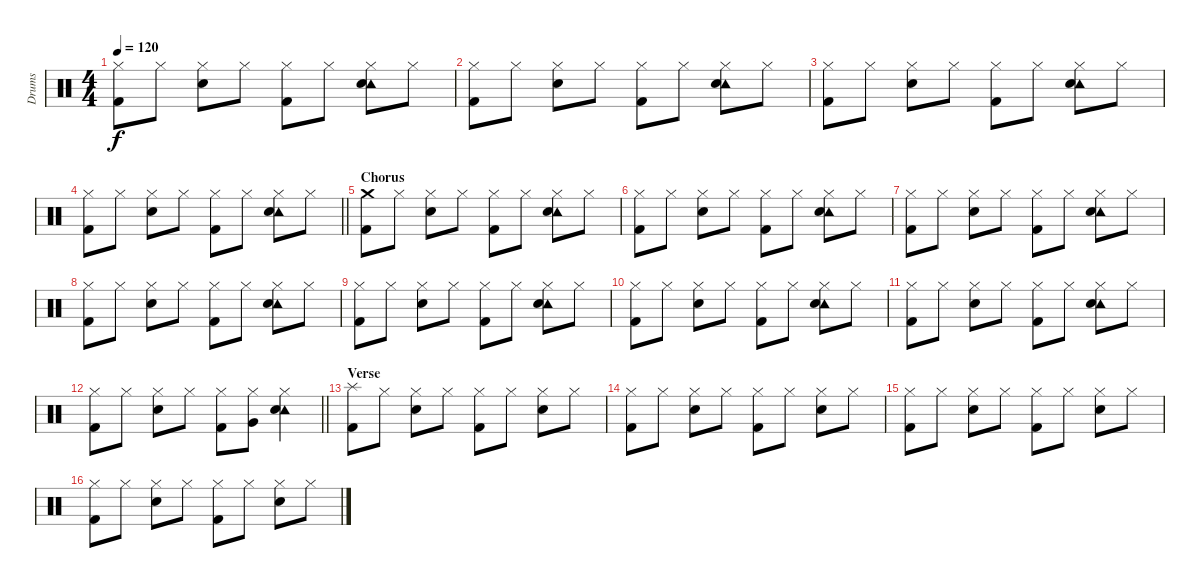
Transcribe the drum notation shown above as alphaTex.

\track ("Drums" "Drums") {instrument percussion}
\staff {score}
\articulation defaults
\ts (4 4)
\tempo 120
\clef neutral
\ks c
("Hi-Hat (closed)" "Kick (hit) 2").8{dy f} "Hi-Hat (closed)".8 ("Hi-Hat (closed)" "Electric Snare (hit)").8 "Hi-Hat (closed)".8 ("Hi-Hat (closed)" "Kick (hit) 2").8 "Hi-Hat (closed)".8 ("Hi-Hat (closed)" "Tambourine (hit)" "Electric Snare (hit)").8 "Hi-Hat (closed)".8 |
("Hi-Hat (closed)" "Kick (hit) 2").8 "Hi-Hat (closed)".8 ("Hi-Hat (closed)" "Electric Snare (hit)").8 "Hi-Hat (closed)".8 ("Hi-Hat (closed)" "Kick (hit) 2").8 "Hi-Hat (closed)".8 ("Hi-Hat (closed)" "Tambourine (hit)" "Electric Snare (hit)").8 "Hi-Hat (closed)".8 |
("Hi-Hat (closed)" "Kick (hit) 2").8 "Hi-Hat (closed)".8 ("Hi-Hat (closed)" "Electric Snare (hit)").8 "Hi-Hat (closed)".8 ("Hi-Hat (closed)" "Kick (hit) 2").8 "Hi-Hat (closed)".8 ("Hi-Hat (closed)" "Tambourine (hit)" "Electric Snare (hit)").8 "Hi-Hat (closed)".8 |
\barLineRight lightlight
("Hi-Hat (closed)" "Kick (hit) 2").8 "Hi-Hat (closed)".8 ("Hi-Hat (closed)" "Electric Snare (hit)").8 "Hi-Hat (closed)".8 ("Hi-Hat (closed)" "Kick (hit) 2").8 "Hi-Hat (closed)".8 ("Hi-Hat (closed)" "Tambourine (hit)" "Electric Snare (hit)").8 "Hi-Hat (closed)".8 |
\section ("" "Chorus")
("Crash medium (hit)" "Kick (hit) 2").8 "Hi-Hat (closed)".8 ("Hi-Hat (closed)" "Electric Snare (hit)").8 "Hi-Hat (closed)".8 ("Hi-Hat (closed)" "Kick (hit) 2").8 "Hi-Hat (closed)".8 ("Hi-Hat (closed)" "Tambourine (hit)" "Electric Snare (hit)").8 "Hi-Hat (closed)".8 |
("Hi-Hat (closed)" "Kick (hit) 2").8 "Hi-Hat (closed)".8 ("Hi-Hat (closed)" "Electric Snare (hit)").8 "Hi-Hat (closed)".8 ("Hi-Hat (closed)" "Kick (hit) 2").8 "Hi-Hat (closed)".8 ("Hi-Hat (closed)" "Tambourine (hit)" "Electric Snare (hit)").8 "Hi-Hat (closed)".8 |
("Hi-Hat (closed)" "Kick (hit) 2").8 "Hi-Hat (closed)".8 ("Hi-Hat (closed)" "Electric Snare (hit)").8 "Hi-Hat (closed)".8 ("Hi-Hat (closed)" "Kick (hit) 2").8 "Hi-Hat (closed)".8 ("Hi-Hat (closed)" "Tambourine (hit)" "Electric Snare (hit)").8 "Hi-Hat (closed)".8 |
("Hi-Hat (closed)" "Kick (hit) 2").8 "Hi-Hat (closed)".8 ("Hi-Hat (closed)" "Electric Snare (hit)").8 "Hi-Hat (closed)".8 ("Hi-Hat (closed)" "Kick (hit) 2").8 "Hi-Hat (closed)".8 ("Hi-Hat (closed)" "Tambourine (hit)" "Electric Snare (hit)").8 "Hi-Hat (closed)".8 |
("Hi-Hat (closed)" "Kick (hit) 2").8 "Hi-Hat (closed)".8 ("Hi-Hat (closed)" "Electric Snare (hit)").8 "Hi-Hat (closed)".8 ("Hi-Hat (closed)" "Kick (hit) 2").8 "Hi-Hat (closed)".8 ("Hi-Hat (closed)" "Tambourine (hit)" "Electric Snare (hit)").8 "Hi-Hat (closed)".8 |
("Hi-Hat (closed)" "Kick (hit) 2").8 "Hi-Hat (closed)".8 ("Hi-Hat (closed)" "Electric Snare (hit)").8 "Hi-Hat (closed)".8 ("Hi-Hat (closed)" "Kick (hit) 2").8 "Hi-Hat (closed)".8 ("Hi-Hat (closed)" "Tambourine (hit)" "Electric Snare (hit)").8 "Hi-Hat (closed)".8 |
("Hi-Hat (closed)" "Kick (hit) 2").8 "Hi-Hat (closed)".8 ("Hi-Hat (closed)" "Electric Snare (hit)").8 "Hi-Hat (closed)".8 ("Hi-Hat (closed)" "Kick (hit) 2").8 "Hi-Hat (closed)".8 ("Hi-Hat (closed)" "Tambourine (hit)" "Electric Snare (hit)").8 "Hi-Hat (closed)".8 |
\barLineRight lightlight
("Hi-Hat (closed)" "Kick (hit) 2").8 "Hi-Hat (closed)".8 ("Hi-Hat (closed)" "Electric Snare (hit)").8 "Hi-Hat (closed)".8 ("Hi-Hat (closed)" "Kick (hit) 2").8 ("Hi-Hat (closed)" "Very Low Tom (hit)").8 ("Hi-Hat (closed)" "Tambourine (hit)" "Electric Snare (hit)").4 |
\section ("" "Verse")
("Splash (hit)" "Kick (hit) 2").8 "Hi-Hat (closed)".8 ("Hi-Hat (closed)" "Electric Snare (hit)").8 "Hi-Hat (closed)".8 ("Hi-Hat (closed)" "Kick (hit) 2").8 "Hi-Hat (closed)".8 ("Hi-Hat (closed)" "Electric Snare (hit)").8 "Hi-Hat (closed)".8 |
("Hi-Hat (closed)" "Kick (hit) 2").8 "Hi-Hat (closed)".8 ("Hi-Hat (closed)" "Electric Snare (hit)").8 "Hi-Hat (closed)".8 ("Hi-Hat (closed)" "Kick (hit) 2").8 "Hi-Hat (closed)".8 ("Hi-Hat (closed)" "Electric Snare (hit)").8 "Hi-Hat (closed)".8 |
("Hi-Hat (closed)" "Kick (hit) 2").8 "Hi-Hat (closed)".8 ("Hi-Hat (closed)" "Electric Snare (hit)").8 "Hi-Hat (closed)".8 ("Hi-Hat (closed)" "Kick (hit) 2").8 "Hi-Hat (closed)".8 ("Hi-Hat (closed)" "Electric Snare (hit)").8 "Hi-Hat (closed)".8 |
("Hi-Hat (closed)" "Kick (hit) 2").8 "Hi-Hat (closed)".8 ("Hi-Hat (closed)" "Electric Snare (hit)").8 "Hi-Hat (closed)".8 ("Hi-Hat (closed)" "Kick (hit) 2").8 "Hi-Hat (closed)".8 ("Hi-Hat (closed)" "Electric Snare (hit)").8 "Hi-Hat (closed)".8
